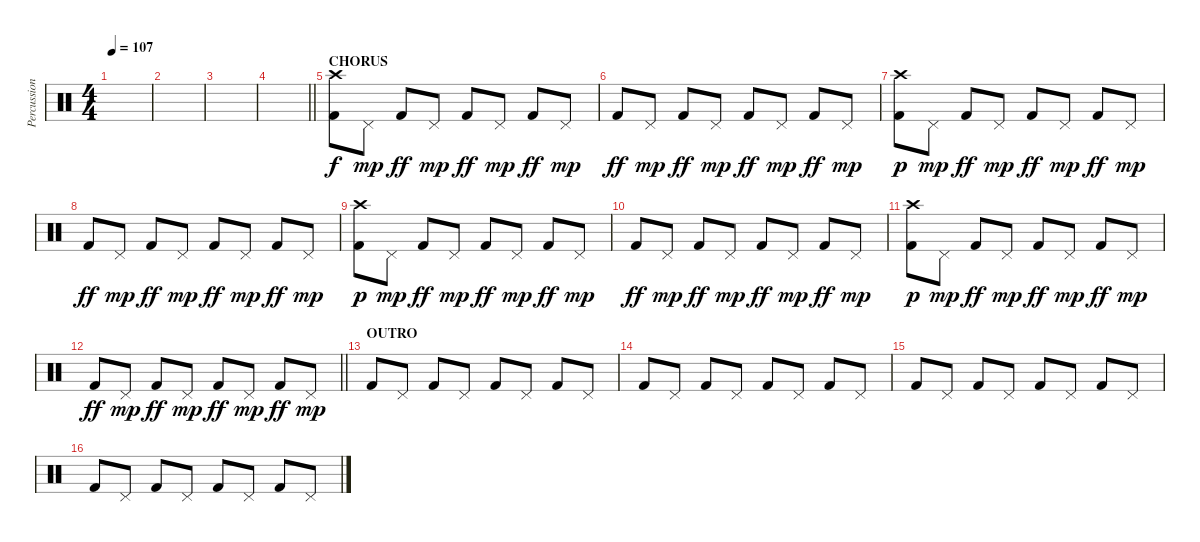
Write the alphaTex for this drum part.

\track ("Percussion" "Percussion") {instrument percussion}
\staff {score}
\articulation defaults
\ts (4 4)
\tempo 107
\clef neutral
\ks c
|
|
|
\barLineRight lightlight
|
\section ("" "CHORUS")
("Kick (hit) 2" "Crash high (hit)").8 "Pedal Hi-Hat (hit)".8{dy mp} "Kick (hit) 2".8{dy ff} "Pedal Hi-Hat (hit)".8{dy mp} "Kick (hit) 2".8{dy ff} "Pedal Hi-Hat (hit)".8{dy mp} "Kick (hit) 2".8{dy ff} "Pedal Hi-Hat (hit)".8{dy mp} |
"Kick (hit) 2".8{dy ff} "Pedal Hi-Hat (hit)".8{dy mp} "Kick (hit) 2".8{dy ff} "Pedal Hi-Hat (hit)".8{dy mp} "Kick (hit) 2".8{dy ff} "Pedal Hi-Hat (hit)".8{dy mp} "Kick (hit) 2".8{dy ff} "Pedal Hi-Hat (hit)".8{dy mp} |
("Kick (hit) 2" "Crash high (hit)").8{dy p} "Pedal Hi-Hat (hit)".8{dy mp} "Kick (hit) 2".8{dy ff} "Pedal Hi-Hat (hit)".8{dy mp} "Kick (hit) 2".8{dy ff} "Pedal Hi-Hat (hit)".8{dy mp} "Kick (hit) 2".8{dy ff} "Pedal Hi-Hat (hit)".8{dy mp} |
"Kick (hit) 2".8{dy ff} "Pedal Hi-Hat (hit)".8{dy mp} "Kick (hit) 2".8{dy ff} "Pedal Hi-Hat (hit)".8{dy mp} "Kick (hit) 2".8{dy ff} "Pedal Hi-Hat (hit)".8{dy mp} "Kick (hit) 2".8{dy ff} "Pedal Hi-Hat (hit)".8{dy mp} |
("Kick (hit) 2" "Crash high (hit)").8{dy p} "Pedal Hi-Hat (hit)".8{dy mp} "Kick (hit) 2".8{dy ff} "Pedal Hi-Hat (hit)".8{dy mp} "Kick (hit) 2".8{dy ff} "Pedal Hi-Hat (hit)".8{dy mp} "Kick (hit) 2".8{dy ff} "Pedal Hi-Hat (hit)".8{dy mp} |
"Kick (hit) 2".8{dy ff} "Pedal Hi-Hat (hit)".8{dy mp} "Kick (hit) 2".8{dy ff} "Pedal Hi-Hat (hit)".8{dy mp} "Kick (hit) 2".8{dy ff} "Pedal Hi-Hat (hit)".8{dy mp} "Kick (hit) 2".8{dy ff} "Pedal Hi-Hat (hit)".8{dy mp} |
("Kick (hit) 2" "Crash high (hit)").8{dy p} "Pedal Hi-Hat (hit)".8{dy mp} "Kick (hit) 2".8{dy ff} "Pedal Hi-Hat (hit)".8{dy mp} "Kick (hit) 2".8{dy ff} "Pedal Hi-Hat (hit)".8{dy mp} "Kick (hit) 2".8{dy ff} "Pedal Hi-Hat (hit)".8{dy mp} |
\barLineRight lightlight "Kick (hit) 2".8{dy ff} "Pedal Hi-Hat (hit)".8{dy mp} "Kick (hit) 2".8{dy ff} "Pedal Hi-Hat (hit)".8{dy mp} "Kick (hit) 2".8{dy ff} "Pedal Hi-Hat (hit)".8{dy mp} "Kick (hit) 2".8{dy ff} "Pedal Hi-Hat (hit)".8{dy mp}
|
\section ("" "OUTRO")
"Kick (hit) 2".8 "Pedal Hi-Hat (hit)".8 "Kick (hit) 2".8 "Pedal Hi-Hat (hit)".8 "Kick (hit) 2".8 "Pedal Hi-Hat (hit)".8 "Kick (hit) 2".8 "Pedal Hi-Hat (hit)".8 |
"Kick (hit) 2".8 "Pedal Hi-Hat (hit)".8 "Kick (hit) 2".8 "Pedal Hi-Hat (hit)".8 "Kick (hit) 2".8 "Pedal Hi-Hat (hit)".8 "Kick (hit) 2".8 "Pedal Hi-Hat (hit)".8 |
"Kick (hit) 2".8 "Pedal Hi-Hat (hit)".8 "Kick (hit) 2".8 "Pedal Hi-Hat (hit)".8 "Kick (hit) 2".8 "Pedal Hi-Hat (hit)".8 "Kick (hit) 2".8 "Pedal Hi-Hat (hit)".8 |
"Kick (hit) 2".8 "Pedal Hi-Hat (hit)".8 "Kick (hit) 2".8 "Pedal Hi-Hat (hit)".8 "Kick (hit) 2".8 "Pedal Hi-Hat (hit)".8 "Kick (hit) 2".8 "Pedal Hi-Hat (hit)".8
